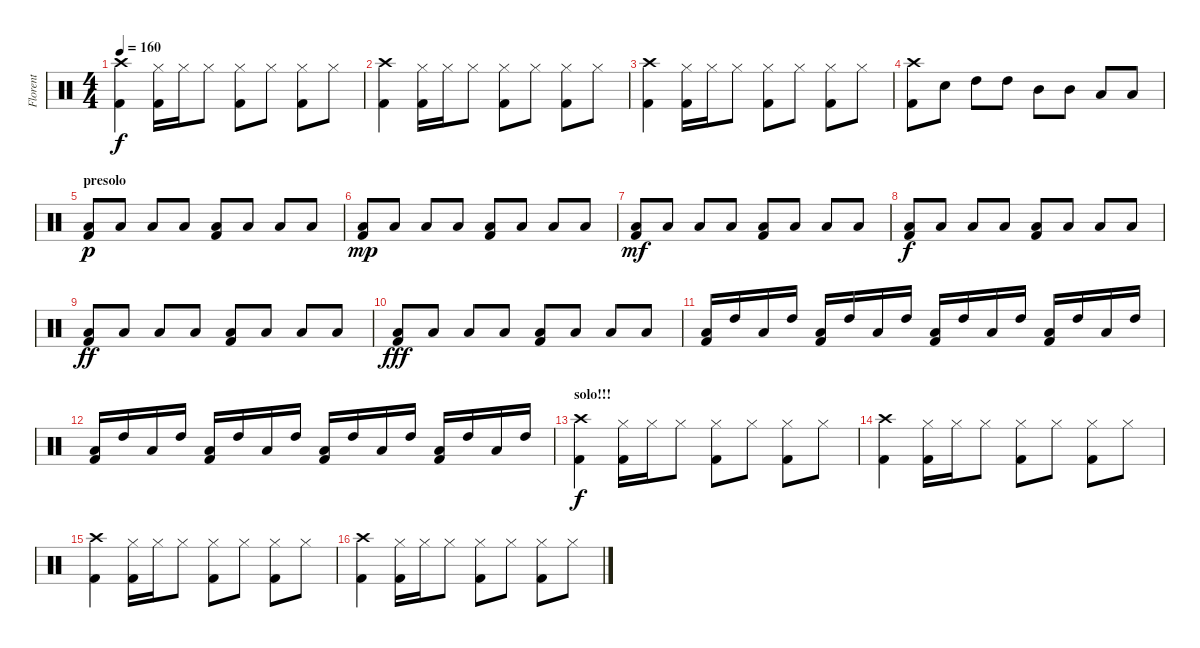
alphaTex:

\track ("Florent" "Florent") {instrument percussion}
\staff {score}
\articulation defaults
\ts (4 4)
\tempo 160
\clef neutral
\ks c
("Crash high (hit)" "Kick (hit) 2").4{dy f} ("Hi-Hat (closed)" "Kick (hit) 2").16 "Hi-Hat (closed)".16 "Hi-Hat (closed)".8 ("Hi-Hat (closed)" "Kick (hit) 2").8 "Hi-Hat (closed)".8 ("Hi-Hat (closed)" "Kick (hit) 2").8 "Hi-Hat (closed)".8 |
("Crash high (hit)" "Kick (hit) 2").4 ("Hi-Hat (closed)" "Kick (hit) 2").16 "Hi-Hat (closed)".16 "Hi-Hat (closed)".8 ("Hi-Hat (closed)" "Kick (hit) 2").8 "Hi-Hat (closed)".8 ("Hi-Hat (closed)" "Kick (hit) 2").8 "Hi-Hat (closed)".8 |
("Crash high (hit)" "Kick (hit) 2").4 ("Hi-Hat (closed)" "Kick (hit) 2").16 "Hi-Hat (closed)".16 "Hi-Hat (closed)".8 ("Hi-Hat (closed)" "Kick (hit) 2").8 "Hi-Hat (closed)".8 ("Hi-Hat (closed)" "Kick (hit) 2").8 "Hi-Hat (closed)".8 |
("Crash high (hit)" "Kick (hit) 2").8 "Snare (hit) 2".8 "High Tom (hit)".8 "High Tom (hit)".8 "Mid Tom (hit)".8 "Mid Tom (hit)".8 "Low Tom (hit)".8 "Low Tom (hit)".8 |
\section ("" "presolo")
("Low Tom (hit)" "Kick (hit) 2").8{dy p} "Low Tom (hit)".8 "Low Tom (hit)".8 "Low Tom (hit)".8 ("Low Tom (hit)" "Kick (hit) 2").8 "Low Tom (hit)".8 "Low Tom (hit)".8 "Low Tom (hit)".8 |
("Low Tom (hit)" "Kick (hit) 2").8{dy mp} "Low Tom (hit)".8 "Low Tom (hit)".8 "Low Tom (hit)".8 ("Low Tom (hit)" "Kick (hit) 2").8 "Low Tom (hit)".8 "Low Tom (hit)".8 "Low Tom (hit)".8 |
("Low Tom (hit)" "Kick (hit) 2").8{dy mf} "Low Tom (hit)".8 "Low Tom (hit)".8 "Low Tom (hit)".8 ("Low Tom (hit)" "Kick (hit) 2").8 "Low Tom (hit)".8 "Low Tom (hit)".8 "Low Tom (hit)".8 |
("Low Tom (hit)" "Kick (hit) 2").8{dy f} "Low Tom (hit)".8 "Low Tom (hit)".8 "Low Tom (hit)".8 ("Low Tom (hit)" "Kick (hit) 2").8 "Low Tom (hit)".8 "Low Tom (hit)".8 "Low Tom (hit)".8 |
("Low Tom (hit)" "Kick (hit) 2").8{dy ff} "Low Tom (hit)".8 "Low Tom (hit)".8 "Low Tom (hit)".8 ("Low Tom (hit)" "Kick (hit) 2").8 "Low Tom (hit)".8 "Low Tom (hit)".8 "Low Tom (hit)".8 |
("Low Tom (hit)" "Kick (hit) 2").8{dy fff} "Low Tom (hit)".8 "Low Tom (hit)".8 "Low Tom (hit)".8 ("Low Tom (hit)" "Kick (hit) 2").8 "Low Tom (hit)".8 "Low Tom (hit)".8 "Low Tom (hit)".8 |
("Low Tom (hit)" "Kick (hit) 2").16 "High Tom (hit)".16 "Low Tom (hit)".16 "High Tom (hit)".16 ("Low Tom (hit)" "Kick (hit) 2").16 "High Tom (hit)".16 "Low Tom (hit)".16 "High Tom (hit)".16 ("Low Tom (hit)" "Kick (hit) 2").16 "High Tom (hit)".16 "Low Tom (hit)".16 "High Tom (hit)".16 ("Low Tom (hit)" "Kick (hit) 2").16 "High Tom (hit)".16 "Low Tom (hit)".16 "High Tom (hit)".16 |
("Low Tom (hit)" "Kick (hit) 2").16 "High Tom (hit)".16 "Low Tom (hit)".16 "High Tom (hit)".16 ("Low Tom (hit)" "Kick (hit) 2").16 "High Tom (hit)".16 "Low Tom (hit)".16 "High Tom (hit)".16 ("Low Tom (hit)" "Kick (hit) 2").16 "High Tom (hit)".16 "Low Tom (hit)".16 "High Tom (hit)".16 ("Low Tom (hit)" "Kick (hit) 2").16 "High Tom (hit)".16 "Low Tom (hit)".16 "High Tom (hit)".16 |
\section ("" "solo!!!")
("Crash high (hit)" "Kick (hit) 2").4{dy f} ("Hi-Hat (closed)" "Kick (hit) 2").16 "Hi-Hat (closed)".16 "Hi-Hat (closed)".8 ("Hi-Hat (closed)" "Kick (hit) 2").8 "Hi-Hat (closed)".8 ("Hi-Hat (closed)" "Kick (hit) 2").8 "Hi-Hat (closed)".8 |
("Crash high (hit)" "Kick (hit) 2").4 ("Hi-Hat (closed)" "Kick (hit) 2").16 "Hi-Hat (closed)".16 "Hi-Hat (closed)".8 ("Hi-Hat (closed)" "Kick (hit) 2").8 "Hi-Hat (closed)".8 ("Hi-Hat (closed)" "Kick (hit) 2").8 "Hi-Hat (closed)".8 |
("Crash high (hit)" "Kick (hit) 2").4 ("Hi-Hat (closed)" "Kick (hit) 2").16 "Hi-Hat (closed)".16 "Hi-Hat (closed)".8 ("Hi-Hat (closed)" "Kick (hit) 2").8 "Hi-Hat (closed)".8 ("Hi-Hat (closed)" "Kick (hit) 2").8 "Hi-Hat (closed)".8 |
("Crash high (hit)" "Kick (hit) 2").4 ("Hi-Hat (closed)" "Kick (hit) 2").16 "Hi-Hat (closed)".16 "Hi-Hat (closed)".8 ("Hi-Hat (closed)" "Kick (hit) 2").8 "Hi-Hat (closed)".8 ("Hi-Hat (closed)" "Kick (hit) 2").8 "Hi-Hat (closed)".8
